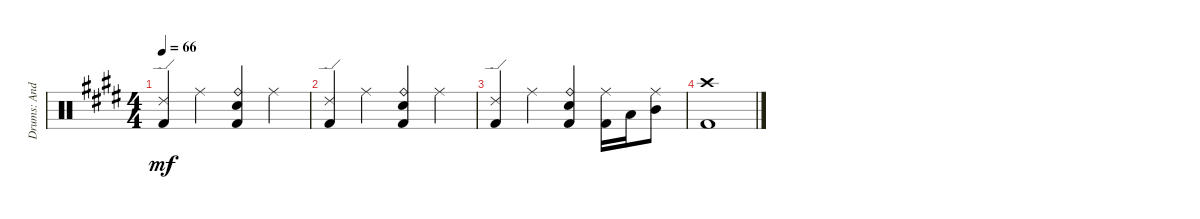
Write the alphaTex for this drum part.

\track ("Drums: Andy" "Drums: And") {instrument percussion}
\staff {score}
\articulation defaults
\ts (4 4)
\tempo 66
\clef neutral
\ks e
("Ride (edge) 2" "Kick (hit) 2").4{dy mf} "Ride (middle)".4 ("Ride (bell)" "Electric Snare (hit)" "Kick (hit) 2").4 "Ride (middle)".4 |
("Ride (edge) 2" "Kick (hit) 2").4 "Ride (middle)".4 ("Ride (bell)" "Electric Snare (hit)" "Kick (hit) 2").4 "Ride (middle)".4 |
("Ride (edge) 2" "Kick (hit) 2").4 "Ride (middle)".4 ("Ride (bell)" "Electric Snare (hit)" "Kick (hit) 2").4 ("Ride (middle)" "Kick (hit) 2").16 "Low Tom (hit)".16 ("Ride (middle)" "Mid Tom (hit)").8 |
("Crash high (hit)" "Kick (hit) 2").1
